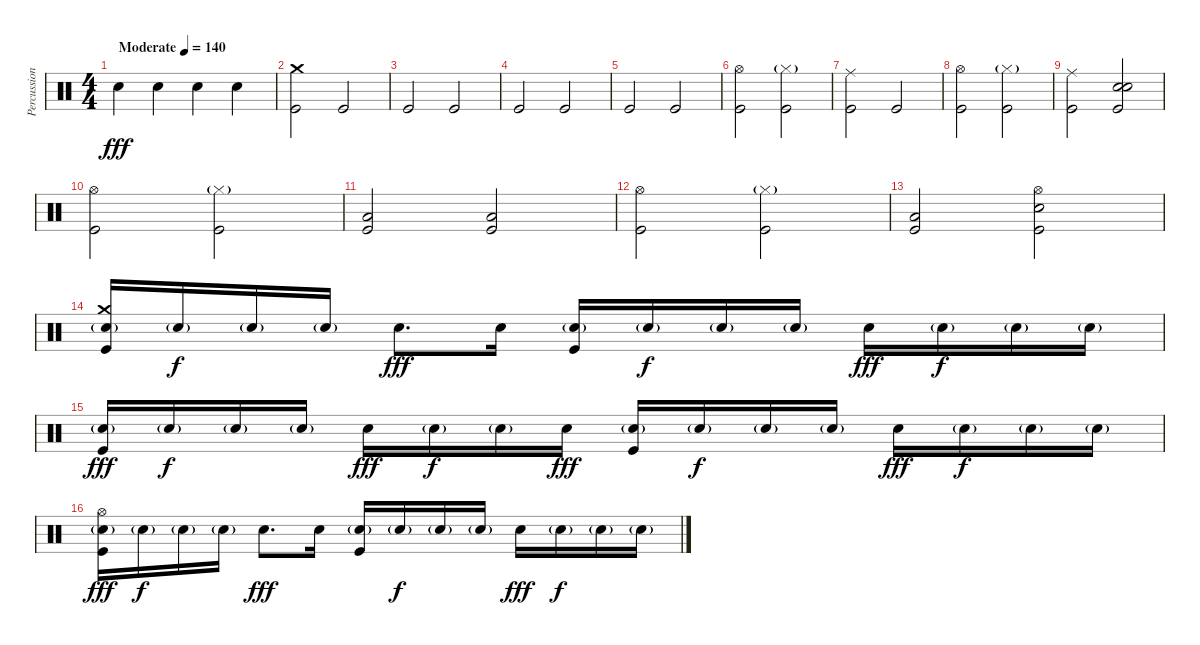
\track ("Percussion" "Percussion") {instrument percussion}
\staff {score}
\articulation defaults
\ts (4 4)
\tempo (140 "Moderate")
\clef neutral
\ks c "Snare (hit) 2".4{dy fff} "Snare (hit) 2".4 "Snare (hit) 2".4 "Snare (hit) 2".4
|
("Crash medium (hit)" "Kick (hit)").2 "Kick (hit)".2 |
"Kick (hit)".2 "Kick (hit)".2 |
"Kick (hit)".2 "Kick (hit)".2 |
"Kick (hit)".2 "Kick (hit)".2 |
("Hi-Hat (open)" "Kick (hit)").2 ("Hi-Hat (closed)"{g} "Kick (hit)").2 |
("Ride (middle)" "Kick (hit)").2 "Kick (hit)".2 |
("Hi-Hat (open)" "Kick (hit)").2 ("Hi-Hat (closed)"{g} "Kick (hit)").2 |
("Ride (middle)" "Kick (hit)").2 ("Snare (hit) 2" "Snare (hit) 2" "Kick (hit)").2 |
("Hi-Hat (open)" "Kick (hit)").2 ("Hi-Hat (closed)"{g} "Kick (hit)").2 |
("Low Floor Tom (hit)" "Kick (hit)").2 ("Low Floor Tom (hit)" "Kick (hit)").2 |
("Hi-Hat (open)" "Kick (hit)").2 ("Hi-Hat (closed)"{g} "Kick (hit)").2 |
("Low Floor Tom (hit)" "Kick (hit)").2 ("Hi-Hat (open)" "Snare (hit) 2" "Kick (hit)").2 |
("Crash medium (hit)" "Snare (hit) 2"{g} "Kick (hit)").16 "Snare (hit) 2"{g}.16{dy f} "Snare (hit) 2"{g}.16 "Snare (hit) 2"{g}.16 "Snare (hit) 2".8{d dy fff} "Snare (hit) 2".16 ("Snare (hit) 2"{g} "Kick (hit)").16 "Snare (hit) 2"{g}.16{dy f} "Snare (hit) 2"{g}.16 "Snare (hit) 2"{g}.16 "Snare (hit) 2".16{dy fff} "Snare (hit) 2"{g}.16{dy f} "Snare (hit) 2"{g}.16 "Snare (hit) 2"{g}.16 |
("Snare (hit) 2"{g} "Kick (hit)").16{dy fff} "Snare (hit) 2"{g}.16{dy f} "Snare (hit) 2"{g}.16 "Snare (hit) 2"{g}.16 "Snare (hit) 2".16{dy fff} "Snare (hit) 2"{g}.16{dy f} "Snare (hit) 2"{g}.16 "Snare (hit) 2".16{dy fff} ("Snare (hit) 2"{g} "Kick (hit)").16 "Snare (hit) 2"{g}.16{dy f} "Snare (hit) 2"{g}.16 "Snare (hit) 2"{g}.16 "Snare (hit) 2".16{dy fff} "Snare (hit) 2"{g}.16{dy f} "Snare (hit) 2"{g}.16 "Snare (hit) 2"{g}.16 |
("Hi-Hat (open)" "Snare (hit) 2"{g} "Kick (hit)").16{dy fff} "Snare (hit) 2"{g}.16{dy f} "Snare (hit) 2"{g}.16 "Snare (hit) 2"{g}.16 "Snare (hit) 2".8{d dy fff} "Snare (hit) 2".16 ("Snare (hit) 2"{g} "Kick (hit)").16 "Snare (hit) 2"{g}.16{dy f} "Snare (hit) 2"{g}.16 "Snare (hit) 2"{g}.16 "Snare (hit) 2".16{dy fff} "Snare (hit) 2"{g}.16{dy f} "Snare (hit) 2"{g}.16 "Snare (hit) 2"{g}.16
